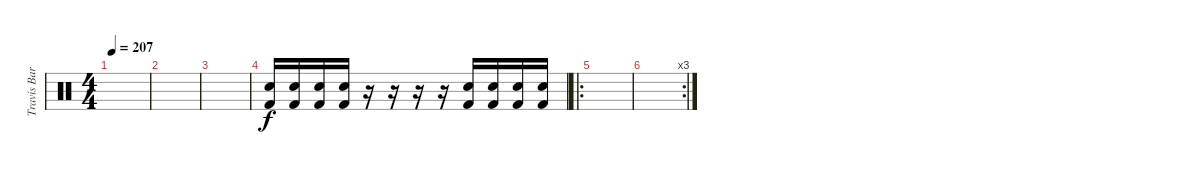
\track ("Travis Barker" "Travis Bar") {instrument percussion}
\staff {score}
\articulation defaults
\ts (4 4)
\tempo 207
\clef neutral
\ks c
|
|
|
("Kick (hit) 2" "Snare (hit) 2").16 ("Kick (hit) 2" "Snare (hit) 2").16 ("Kick (hit) 2" "Snare (hit) 2").16 ("Kick (hit) 2" "Snare (hit) 2").16 r.16 r.16 r.16 r.16 ("Kick (hit) 2" "Snare (hit) 2").16 ("Kick (hit) 2" "Snare (hit) 2").16 ("Kick (hit) 2" "Snare (hit) 2").16 ("Kick (hit) 2" "Snare (hit) 2").16 |
\ro
|
\rc 3
